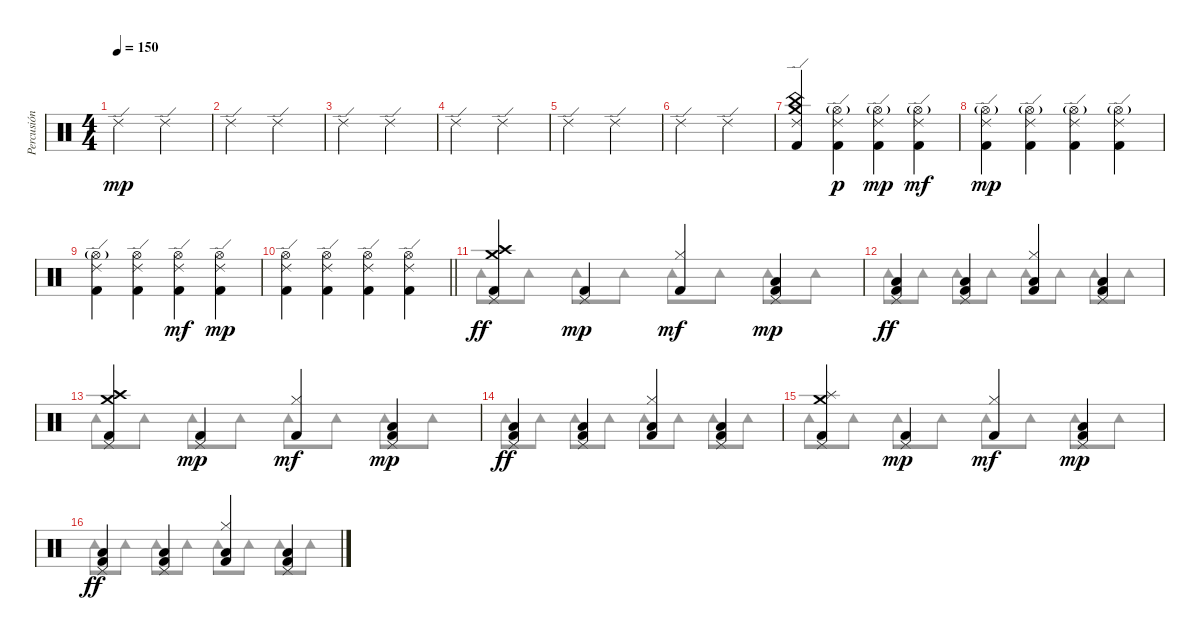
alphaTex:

\track ("Percusión" "Percusión") {instrument percussion}
\staff {score}
\articulation defaults
\voice
\ts (4 4)
\tempo 150
\clef neutral
\ks c "Ride (edge) 2".2{dy mp} "Ride (edge) 2".2
|
"Ride (edge) 2".2 "Ride (edge) 2".2 |
"Ride (edge) 2".2 "Ride (edge) 2".2 |
"Ride (edge) 2".2 "Ride (edge) 2".2 |
"Ride (edge) 2".2 "Ride (edge) 2".2 |
"Ride (edge) 2".2 "Ride (edge) 2".2 |
("Crash medium (hit)" "China (hit)" "Ride (edge) 2" "Kick (hit) 2").4 ("Hi-Hat (open)"{g} "Ride (edge) 2" "Kick (hit) 2").4{dy p} ("Hi-Hat (open)"{g} "Ride (edge) 2" "Kick (hit) 2").4{dy mp} ("Hi-Hat (open)"{g} "Ride (edge) 2" "Kick (hit) 2").4{dy mf} |
("Hi-Hat (open)"{g} "Ride (edge) 2" "Kick (hit) 2").4{dy mp} ("Hi-Hat (open)"{g} "Ride (edge) 2" "Kick (hit) 2").4 ("Hi-Hat (open)"{g} "Ride (edge) 2" "Kick (hit) 2").4 ("Hi-Hat (open)"{g} "Ride (edge) 2" "Kick (hit) 2").4 |
("Hi-Hat (open)"{g} "Ride (edge) 2" "Kick (hit) 2").4 ("Hi-Hat (open)" "Ride (edge) 2" "Kick (hit) 2").4 ("Hi-Hat (open)" "Ride (edge) 2" "Kick (hit) 2").4{dy mf} ("Hi-Hat (open)" "Ride (edge) 2" "Kick (hit) 2").4{dy mp} |
\barLineRight lightlight
("Hi-Hat (open)" "Ride (edge) 2" "Kick (hit) 2").4 ("Hi-Hat (open)" "Ride (edge) 2" "Kick (hit) 2").4 ("Hi-Hat (open)" "Ride (edge) 2" "Kick (hit) 2").4 ("Hi-Hat (open)" "Ride (edge) 2" "Kick (hit) 2").4 |
("Crash medium (hit)" "Crash high (hit)" "Pedal Hi-Hat (hit)" "Kick (hit) 2").4{dy ff} ("Pedal Hi-Hat (hit)" "Kick (hit) 2").4{dy mp} ("Hi-Hat (closed)" "Kick (hit) 2").4{dy mf} ("Pedal Hi-Hat (hit)" "Low Floor Tom (hit)" "Kick (hit) 2").4{dy mp} |
("Pedal Hi-Hat (hit)" "Low Floor Tom (hit)" "Kick (hit) 2").4{dy ff} ("Pedal Hi-Hat (hit)" "Low Floor Tom (hit)" "Kick (hit) 2").4 ("Hi-Hat (closed)" "Low Floor Tom (hit)" "Kick (hit) 2").4 ("Pedal Hi-Hat (hit)" "Low Floor Tom (hit)" "Kick (hit) 2").4 |
("Crash medium (hit)" "Crash high (hit)" "Pedal Hi-Hat (hit)" "Kick (hit) 2").4 ("Pedal Hi-Hat (hit)" "Kick (hit) 2").4{dy mp} ("Hi-Hat (closed)" "Kick (hit) 2").4{dy mf} ("Pedal Hi-Hat (hit)" "Low Floor Tom (hit)" "Kick (hit) 2").4{dy mp} |
("Pedal Hi-Hat (hit)" "Low Floor Tom (hit)" "Kick (hit) 2").4{dy ff} ("Pedal Hi-Hat (hit)" "Low Floor Tom (hit)" "Kick (hit) 2").4 ("Hi-Hat (closed)" "Low Floor Tom (hit)" "Kick (hit) 2").4 ("Pedal Hi-Hat (hit)" "Low Floor Tom (hit)" "Kick (hit) 2").4 |
("Crash medium (hit)" "Splash (hit)" "Pedal Hi-Hat (hit)" "Kick (hit) 2").4 ("Pedal Hi-Hat (hit)" "Kick (hit) 2").4{dy mp} ("Hi-Hat (closed)" "Kick (hit) 2").4{dy mf} ("Pedal Hi-Hat (hit)" "Low Floor Tom (hit)" "Kick (hit) 2").4{dy mp} |
("Pedal Hi-Hat (hit)" "Low Floor Tom (hit)" "Kick (hit) 2").4{dy ff} ("Pedal Hi-Hat (hit)" "Low Floor Tom (hit)" "Kick (hit) 2").4 ("Hi-Hat (closed)" "Low Floor Tom (hit)" "Kick (hit) 2").4 ("Pedal Hi-Hat (hit)" "Low Floor Tom (hit)" "Kick (hit) 2").4
\voice
\clef neutral
\ottava regular
\simile none
\ks c
|
|
|
|
|
|
|
|
|
\barLineRight lightlight
|
"Tambourine (hit)".8 "Tambourine (hit)".8 "Tambourine (hit)".8 "Tambourine (hit)".8 "Tambourine (hit)".8 "Tambourine (hit)".8 "Tambourine (hit)".8 "Tambourine (hit)".8 |
"Tambourine (hit)".8 "Tambourine (hit)".8 "Tambourine (hit)".8 "Tambourine (hit)".8 "Tambourine (hit)".8 "Tambourine (hit)".8 "Tambourine (hit)".8 "Tambourine (hit)".8 |
"Tambourine (hit)".8 "Tambourine (hit)".8 "Tambourine (hit)".8 "Tambourine (hit)".8 "Tambourine (hit)".8 "Tambourine (hit)".8 "Tambourine (hit)".8 "Tambourine (hit)".8 |
"Tambourine (hit)".8 "Tambourine (hit)".8 "Tambourine (hit)".8 "Tambourine (hit)".8 "Tambourine (hit)".8 "Tambourine (hit)".8 "Tambourine (hit)".8 "Tambourine (hit)".8 |
"Tambourine (hit)".8 "Tambourine (hit)".8 "Tambourine (hit)".8 "Tambourine (hit)".8 "Tambourine (hit)".8 "Tambourine (hit)".8 "Tambourine (hit)".8 "Tambourine (hit)".8 |
"Tambourine (hit)".8 "Tambourine (hit)".8 "Tambourine (hit)".8 "Tambourine (hit)".8 "Tambourine (hit)".8 "Tambourine (hit)".8 "Tambourine (hit)".8 "Tambourine (hit)".8
